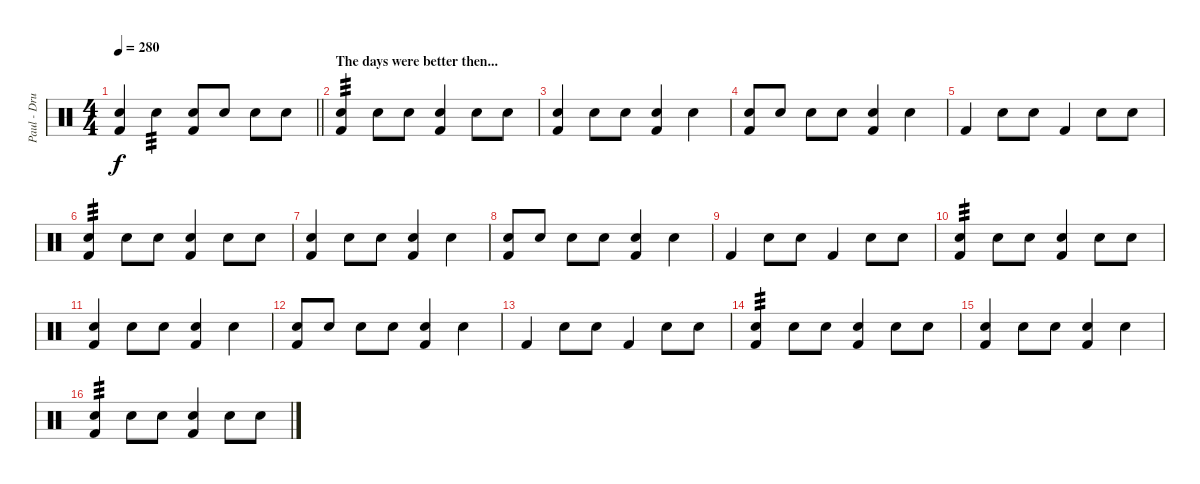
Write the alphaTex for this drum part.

\track ("Paul - Drums" "Paul - Dru") {instrument percussion}
\staff {score}
\articulation defaults
\ts (4 4)
\tempo 280
\clef neutral
\barLineRight lightlight
\ks c
("Electric Snare (hit)" "Kick (hit) 2").4{dy f} "Electric Snare (hit)".4{tp 3} ("Electric Snare (hit)" "Kick (hit) 2").8 "Electric Snare (hit)".8 "Electric Snare (hit)".8 "Electric Snare (hit)".8 |
\section ("" "The days were better then...")
("Electric Snare (hit)" "Kick (hit) 2").4{tp 3} "Electric Snare (hit)".8 "Electric Snare (hit)".8 ("Electric Snare (hit)" "Kick (hit) 2").4 "Electric Snare (hit)".8 "Electric Snare (hit)".8 |
("Electric Snare (hit)" "Kick (hit) 2").4 "Electric Snare (hit)".8 "Electric Snare (hit)".8 ("Electric Snare (hit)" "Kick (hit) 2").4 "Electric Snare (hit)".4 |
("Electric Snare (hit)" "Kick (hit) 2").8 "Electric Snare (hit)".8 "Electric Snare (hit)".8 "Electric Snare (hit)".8 ("Electric Snare (hit)" "Kick (hit) 2").4 "Electric Snare (hit)".4 |
"Kick (hit) 2".4 "Electric Snare (hit)".8 "Electric Snare (hit)".8 "Kick (hit) 2".4 "Electric Snare (hit)".8 "Electric Snare (hit)".8 |
("Electric Snare (hit)" "Kick (hit) 2").4{tp 3} "Electric Snare (hit)".8 "Electric Snare (hit)".8 ("Electric Snare (hit)" "Kick (hit) 2").4 "Electric Snare (hit)".8 "Electric Snare (hit)".8 |
("Electric Snare (hit)" "Kick (hit) 2").4 "Electric Snare (hit)".8 "Electric Snare (hit)".8 ("Electric Snare (hit)" "Kick (hit) 2").4 "Electric Snare (hit)".4 |
("Electric Snare (hit)" "Kick (hit) 2").8 "Electric Snare (hit)".8 "Electric Snare (hit)".8 "Electric Snare (hit)".8 ("Electric Snare (hit)" "Kick (hit) 2").4 "Electric Snare (hit)".4 |
"Kick (hit) 2".4 "Electric Snare (hit)".8 "Electric Snare (hit)".8 "Kick (hit) 2".4 "Electric Snare (hit)".8 "Electric Snare (hit)".8 |
("Electric Snare (hit)" "Kick (hit) 2").4{tp 3} "Electric Snare (hit)".8 "Electric Snare (hit)".8 ("Electric Snare (hit)" "Kick (hit) 2").4 "Electric Snare (hit)".8 "Electric Snare (hit)".8 |
("Electric Snare (hit)" "Kick (hit) 2").4 "Electric Snare (hit)".8 "Electric Snare (hit)".8 ("Electric Snare (hit)" "Kick (hit) 2").4 "Electric Snare (hit)".4 |
("Electric Snare (hit)" "Kick (hit) 2").8 "Electric Snare (hit)".8 "Electric Snare (hit)".8 "Electric Snare (hit)".8 ("Electric Snare (hit)" "Kick (hit) 2").4 "Electric Snare (hit)".4 |
"Kick (hit) 2".4 "Electric Snare (hit)".8 "Electric Snare (hit)".8 "Kick (hit) 2".4 "Electric Snare (hit)".8 "Electric Snare (hit)".8 |
("Electric Snare (hit)" "Kick (hit) 2").4{tp 3} "Electric Snare (hit)".8 "Electric Snare (hit)".8 ("Electric Snare (hit)" "Kick (hit) 2").4 "Electric Snare (hit)".8 "Electric Snare (hit)".8 |
("Electric Snare (hit)" "Kick (hit) 2").4 "Electric Snare (hit)".8 "Electric Snare (hit)".8 ("Electric Snare (hit)" "Kick (hit) 2").4 "Electric Snare (hit)".4 |
("Electric Snare (hit)" "Kick (hit) 2").4{tp 3} "Electric Snare (hit)".8 "Electric Snare (hit)".8 ("Electric Snare (hit)" "Kick (hit) 2").4 "Electric Snare (hit)".8 "Electric Snare (hit)".8
